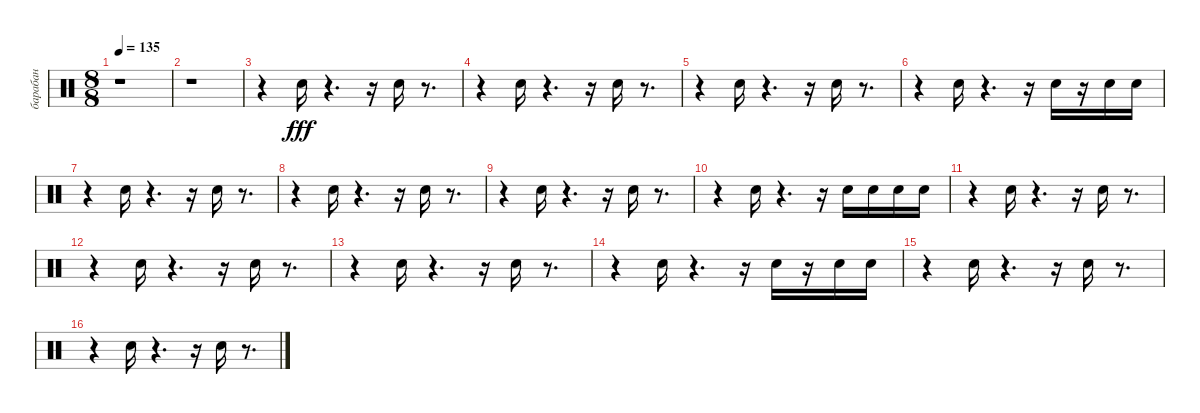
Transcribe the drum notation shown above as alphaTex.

\track ("барабан" "барабан") {instrument percussion}
\staff {score}
\articulation defaults
\ts (8 8)
\tempo 135
\clef neutral
\ks c
r.1{dy fff} |
r.1 |
r.4 "Snare (hit) 2".16 r.4{d} r.16 "Snare (hit) 2".16 r.8{d} |
r.4 "Snare (hit) 2".16 r.4{d} r.16 "Snare (hit) 2".16 r.8{d} |
r.4 "Snare (hit) 2".16 r.4{d} r.16 "Snare (hit) 2".16 r.8{d} |
r.4 "Snare (hit) 2".16 r.4{d} r.16 "Snare (hit) 2".16 r.16 "Snare (hit) 2".16 "Snare (hit) 2".16 |
r.4 "Snare (hit) 2".16 r.4{d} r.16 "Snare (hit) 2".16 r.8{d} |
r.4 "Snare (hit) 2".16 r.4{d} r.16 "Snare (hit) 2".16 r.8{d} |
r.4 "Snare (hit) 2".16 r.4{d} r.16 "Snare (hit) 2".16 r.8{d} |
r.4 "Snare (hit) 2".16 r.4{d} r.16 "Snare (hit) 2".16 "Snare (hit) 2".16 "Snare (hit) 2".16 "Snare (hit) 2".16 |
r.4 "Snare (hit) 2".16 r.4{d} r.16 "Snare (hit) 2".16 r.8{d} |
r.4 "Snare (hit) 2".16 r.4{d} r.16 "Snare (hit) 2".16 r.8{d} |
r.4 "Snare (hit) 2".16 r.4{d} r.16 "Snare (hit) 2".16 r.8{d} |
r.4 "Snare (hit) 2".16 r.4{d} r.16 "Snare (hit) 2".16 r.16 "Snare (hit) 2".16 "Snare (hit) 2".16 |
r.4 "Snare (hit) 2".16 r.4{d} r.16 "Snare (hit) 2".16 r.8{d} |
r.4 "Snare (hit) 2".16 r.4{d} r.16 "Snare (hit) 2".16 r.8{d}
